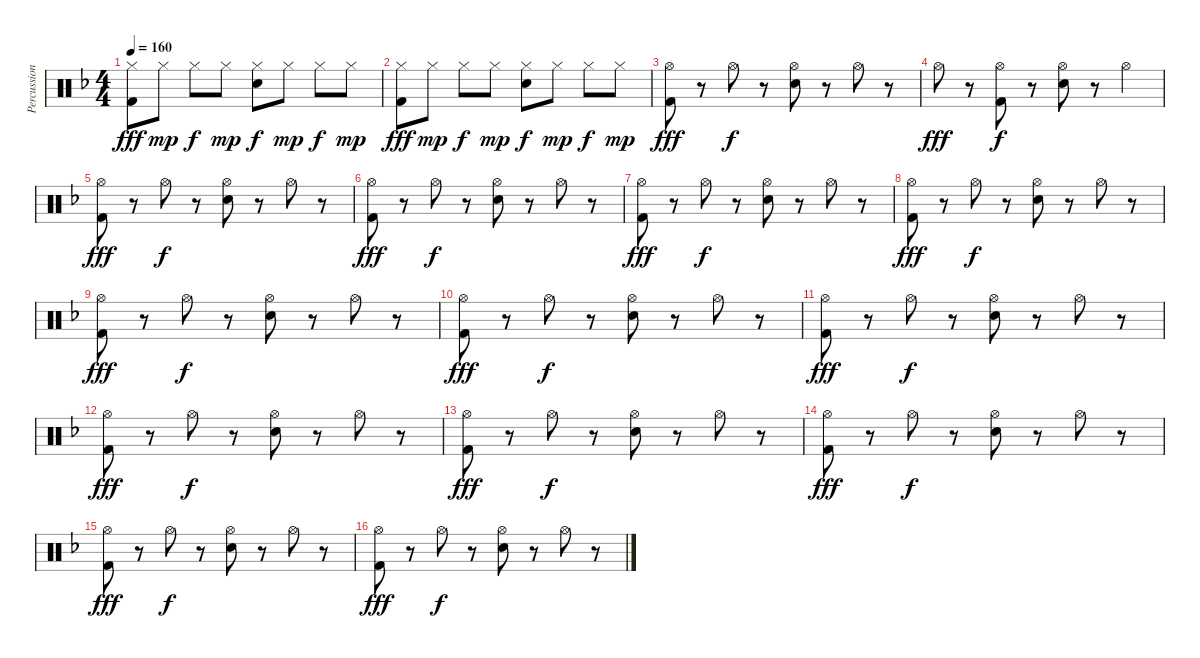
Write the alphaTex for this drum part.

\track ("Percussion" "Percussion") {instrument percussion}
\staff {score}
\articulation defaults
\ts (4 4)
\tempo 160
\clef neutral
\ks f
("Hi-Hat (closed)" "Kick (hit) 2").8{dy fff} "Hi-Hat (closed)".8{dy mp} "Hi-Hat (closed)".8{dy f} "Hi-Hat (closed)".8{dy mp} ("Hi-Hat (closed)" "Electric Snare (hit)").8{dy f} "Hi-Hat (closed)".8{dy mp} "Hi-Hat (closed)".8{dy f} "Hi-Hat (closed)".8{dy mp} |
("Hi-Hat (closed)" "Kick (hit) 2").8{dy fff} "Hi-Hat (closed)".8{dy mp} "Hi-Hat (closed)".8{dy f} "Hi-Hat (closed)".8{dy mp} ("Hi-Hat (closed)" "Electric Snare (hit)").8{dy f} "Hi-Hat (closed)".8{dy mp} "Hi-Hat (closed)".8{dy f} "Hi-Hat (closed)".8{dy mp} |
("Hi-Hat (open)" "Kick (hit) 2").8{dy fff} r.8 "Hi-Hat (open)".8{dy f} r.8 ("Hi-Hat (open)" "Electric Snare (hit)").8 r.8 "Hi-Hat (open)".8 r.8 |
"Hi-Hat (open)".8{dy fff} r.8 ("Hi-Hat (open)" "Kick (hit) 2").8{dy f} r.8 ("Hi-Hat (open)" "Electric Snare (hit)").8 r.8 "Hi-Hat (open)".4 |
("Hi-Hat (open)" "Kick (hit) 2").8{dy fff} r.8 "Hi-Hat (open)".8{dy f} r.8 ("Hi-Hat (open)" "Electric Snare (hit)").8 r.8 "Hi-Hat (open)".8 r.8 |
("Hi-Hat (open)" "Kick (hit) 2").8{dy fff} r.8 "Hi-Hat (open)".8{dy f} r.8 ("Hi-Hat (open)" "Electric Snare (hit)").8 r.8 "Hi-Hat (open)".8 r.8 |
("Hi-Hat (open)" "Kick (hit) 2").8{dy fff} r.8 "Hi-Hat (open)".8{dy f} r.8 ("Hi-Hat (open)" "Electric Snare (hit)").8 r.8 "Hi-Hat (open)".8 r.8 |
("Hi-Hat (open)" "Kick (hit) 2").8{dy fff} r.8 "Hi-Hat (open)".8{dy f} r.8 ("Hi-Hat (open)" "Electric Snare (hit)").8 r.8 "Hi-Hat (open)".8 r.8 |
("Hi-Hat (open)" "Kick (hit) 2").8{dy fff} r.8 "Hi-Hat (open)".8{dy f} r.8 ("Hi-Hat (open)" "Electric Snare (hit)").8 r.8 "Hi-Hat (open)".8 r.8 |
("Hi-Hat (open)" "Kick (hit) 2").8{dy fff} r.8 "Hi-Hat (open)".8{dy f} r.8 ("Hi-Hat (open)" "Electric Snare (hit)").8 r.8 "Hi-Hat (open)".8 r.8 |
("Hi-Hat (open)" "Kick (hit) 2").8{dy fff} r.8 "Hi-Hat (open)".8{dy f} r.8 ("Hi-Hat (open)" "Electric Snare (hit)").8 r.8 "Hi-Hat (open)".8 r.8 |
("Hi-Hat (open)" "Kick (hit) 2").8{dy fff} r.8 "Hi-Hat (open)".8{dy f} r.8 ("Hi-Hat (open)" "Electric Snare (hit)").8 r.8 "Hi-Hat (open)".8 r.8 |
("Hi-Hat (open)" "Kick (hit) 2").8{dy fff} r.8 "Hi-Hat (open)".8{dy f} r.8 ("Hi-Hat (open)" "Electric Snare (hit)").8 r.8 "Hi-Hat (open)".8 r.8 |
("Hi-Hat (open)" "Kick (hit) 2").8{dy fff} r.8 "Hi-Hat (open)".8{dy f} r.8 ("Hi-Hat (open)" "Electric Snare (hit)").8 r.8 "Hi-Hat (open)".8 r.8 |
("Hi-Hat (open)" "Kick (hit) 2").8{dy fff} r.8 "Hi-Hat (open)".8{dy f} r.8 ("Hi-Hat (open)" "Electric Snare (hit)").8 r.8 "Hi-Hat (open)".8 r.8 |
("Hi-Hat (open)" "Kick (hit) 2").8{dy fff} r.8 "Hi-Hat (open)".8{dy f} r.8 ("Hi-Hat (open)" "Electric Snare (hit)").8 r.8 "Hi-Hat (open)".8 r.8
